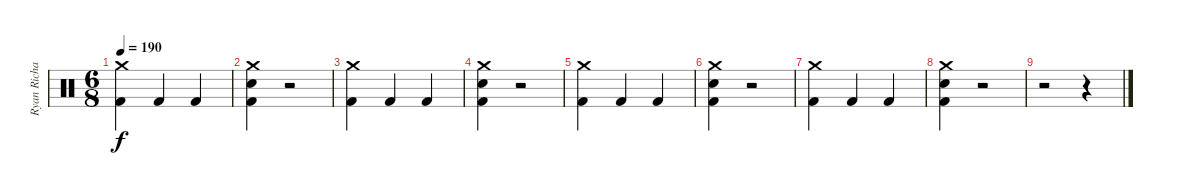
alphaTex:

\track ("Ryan Richards" "Ryan Richa") {instrument percussion bank 127}
\staff {score}
\articulation defaults
\ts (6 8)
\tempo 190
\clef neutral
\ks c
("Crash medium (hit)" "Kick (hit) 2").4{dy f} "Kick (hit) 2".4 "Kick (hit) 2".4 |
("Crash medium (hit)" "Snare (hit) 2" "Kick (hit) 2").4 r.2 |
("Crash medium (hit)" "Kick (hit) 2").4 "Kick (hit) 2".4 "Kick (hit) 2".4 |
("Crash medium (hit)" "Snare (hit) 2" "Kick (hit) 2").4 r.2 |
("Crash medium (hit)" "Kick (hit) 2").4 "Kick (hit) 2".4 "Kick (hit) 2".4 |
("Crash medium (hit)" "Snare (hit) 2" "Kick (hit) 2").4 r.2 |
("Crash medium (hit)" "Kick (hit) 2").4 "Kick (hit) 2".4 "Kick (hit) 2".4 |
("Crash medium (hit)" "Snare (hit) 2" "Kick (hit) 2").4 r.2 |
r.2 r.4
